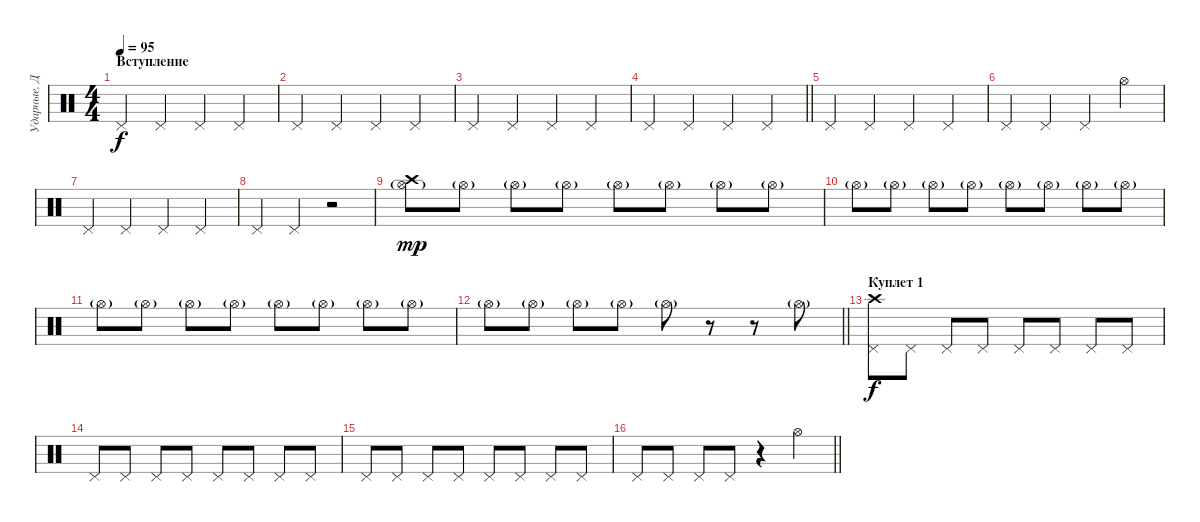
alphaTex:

\track ("Ударные, Дэн" "Ударные, Д") {instrument percussion}
\staff {score}
\articulation defaults
\ts (4 4)
\section ("" "Вступление")
\tempo 95
\clef neutral
\ks c "Pedal Hi-Hat (hit)".4{dy f} "Pedal Hi-Hat (hit)".4 "Pedal Hi-Hat (hit)".4 "Pedal Hi-Hat (hit)".4
|
"Pedal Hi-Hat (hit)".4 "Pedal Hi-Hat (hit)".4 "Pedal Hi-Hat (hit)".4 "Pedal Hi-Hat (hit)".4 |
"Pedal Hi-Hat (hit)".4 "Pedal Hi-Hat (hit)".4 "Pedal Hi-Hat (hit)".4 "Pedal Hi-Hat (hit)".4 |
\barLineRight lightlight "Pedal Hi-Hat (hit)".4 "Pedal Hi-Hat (hit)".4 "Pedal Hi-Hat (hit)".4 "Pedal Hi-Hat (hit)".4
|
\section ("" "")
"Pedal Hi-Hat (hit)".4 "Pedal Hi-Hat (hit)".4 "Pedal Hi-Hat (hit)".4 "Pedal Hi-Hat (hit)".4 |
"Pedal Hi-Hat (hit)".4 "Pedal Hi-Hat (hit)".4 "Pedal Hi-Hat (hit)".4 "Hi-Hat (open)".4 |
"Pedal Hi-Hat (hit)".4 "Pedal Hi-Hat (hit)".4 "Pedal Hi-Hat (hit)".4 "Pedal Hi-Hat (hit)".4 |
"Pedal Hi-Hat (hit)".4 "Pedal Hi-Hat (hit)".4 r.2 |
("Hi-Hat (open)"{g} "Crash high (hit)").8{dy mp} "Hi-Hat (open)"{g}.8 "Hi-Hat (open)"{g}.8 "Hi-Hat (open)"{g}.8 "Hi-Hat (open)"{g}.8 "Hi-Hat (open)"{g}.8 "Hi-Hat (open)"{g}.8 "Hi-Hat (open)"{g}.8 |
"Hi-Hat (open)"{g}.8 "Hi-Hat (open)"{g}.8 "Hi-Hat (open)"{g}.8 "Hi-Hat (open)"{g}.8 "Hi-Hat (open)"{g}.8 "Hi-Hat (open)"{g}.8 "Hi-Hat (open)"{g}.8 "Hi-Hat (open)"{g}.8 |
"Hi-Hat (open)"{g}.8 "Hi-Hat (open)"{g}.8 "Hi-Hat (open)"{g}.8 "Hi-Hat (open)"{g}.8 "Hi-Hat (open)"{g}.8 "Hi-Hat (open)"{g}.8 "Hi-Hat (open)"{g}.8 "Hi-Hat (open)"{g}.8 |
\barLineRight lightlight "Hi-Hat (open)"{g}.8 "Hi-Hat (open)"{g}.8 "Hi-Hat (open)"{g}.8 "Hi-Hat (open)"{g}.8 "Hi-Hat (open)"{g}.8
r.8 r.8 "Hi-Hat (open)"{g}.8 |
\section ("" "Куплет 1")
("Pedal Hi-Hat (hit)" "Crash high (hit)").8{dy f} "Pedal Hi-Hat (hit)".8 "Pedal Hi-Hat (hit)".8 "Pedal Hi-Hat (hit)".8 "Pedal Hi-Hat (hit)".8 "Pedal Hi-Hat (hit)".8 "Pedal Hi-Hat (hit)".8 "Pedal Hi-Hat (hit)".8 |
"Pedal Hi-Hat (hit)".8 "Pedal Hi-Hat (hit)".8 "Pedal Hi-Hat (hit)".8 "Pedal Hi-Hat (hit)".8 "Pedal Hi-Hat (hit)".8 "Pedal Hi-Hat (hit)".8 "Pedal Hi-Hat (hit)".8 "Pedal Hi-Hat (hit)".8 |
"Pedal Hi-Hat (hit)".8 "Pedal Hi-Hat (hit)".8 "Pedal Hi-Hat (hit)".8 "Pedal Hi-Hat (hit)".8 "Pedal Hi-Hat (hit)".8 "Pedal Hi-Hat (hit)".8 "Pedal Hi-Hat (hit)".8 "Pedal Hi-Hat (hit)".8 |
\barLineRight lightlight "Pedal Hi-Hat (hit)".8 "Pedal Hi-Hat (hit)".8 "Pedal Hi-Hat (hit)".8 "Pedal Hi-Hat (hit)".8
r.4 "Hi-Hat (open)".4
